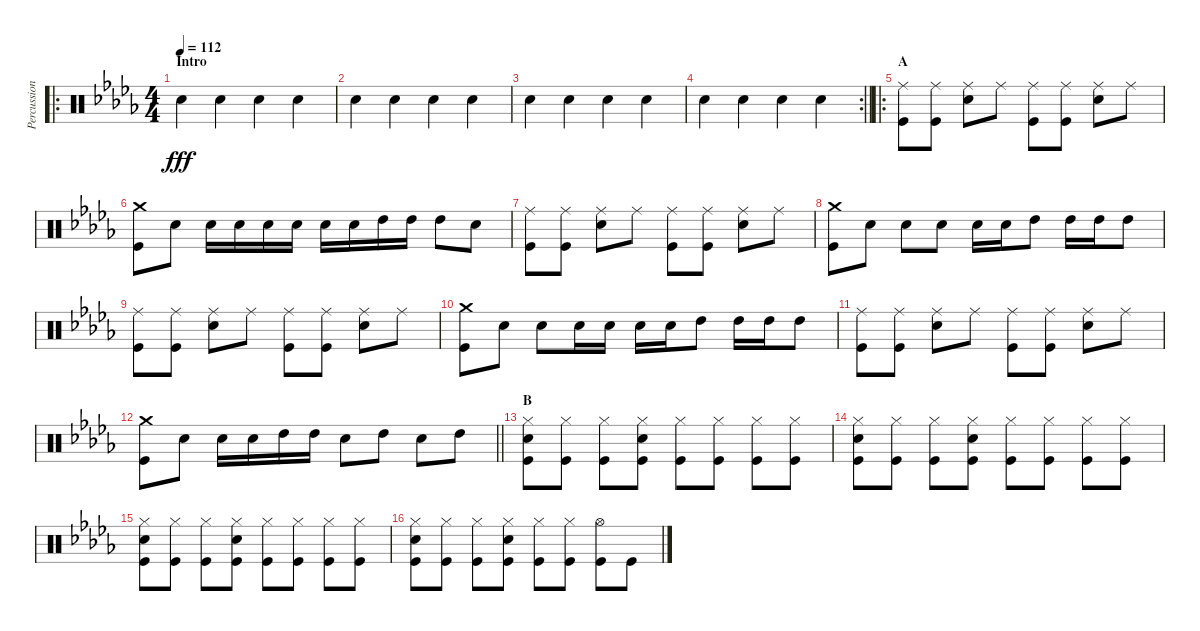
\track ("Percussioni" "Percussion") {instrument percussion}
\staff {score}
\articulation defaults
\ro
\ts (4 4)
\section ("" "Intro")
\tempo 112
\clef neutral
\ks db "Hand Clap (hit)".4{dy fff} "Hand Clap (hit)".4 "Hand Clap (hit)".4 "Hand Clap (hit)".4
|
"Hand Clap (hit)".4 "Hand Clap (hit)".4 "Hand Clap (hit)".4 "Hand Clap (hit)".4 |
"Hand Clap (hit)".4 "Hand Clap (hit)".4 "Hand Clap (hit)".4 "Hand Clap (hit)".4 |
\rc 2
\barLineRight lightlight "Hand Clap (hit)".4 "Hand Clap (hit)".4 "Hand Clap (hit)".4 "Hand Clap (hit)".4
|
\ro
\section ("" "A")
("Ride (middle)" "Kick (hit)").8 ("Ride (middle)" "Kick (hit)").8 ("Ride (middle)" "Snare (hit) 2").8 "Ride (middle)".8 ("Ride (middle)" "Kick (hit)").8 ("Ride (middle)" "Kick (hit)").8 ("Ride (middle)" "Snare (hit) 2").8 "Ride (middle)".8 |
("Crash medium (hit)" "Kick (hit)").8 "Snare (hit) 2".8 "Snare (hit) 2".16 "Snare (hit) 2".16 "Snare (hit) 2".16 "Snare (hit) 2".16 "Snare (hit) 2".16 "Snare (hit) 2".16 "High Tom (hit)".16 "High Tom (hit)".16 "High Tom (hit)".8 "Snare (hit) 2".8 |
("Ride (middle)" "Kick (hit)").8 ("Ride (middle)" "Kick (hit)").8 ("Ride (middle)" "Snare (hit) 2").8 "Ride (middle)".8 ("Ride (middle)" "Kick (hit)").8 ("Ride (middle)" "Kick (hit)").8 ("Ride (middle)" "Snare (hit) 2").8 "Ride (middle)".8 |
("Crash medium (hit)" "Kick (hit)").8 "Snare (hit) 2".8 "Snare (hit) 2".8 "Snare (hit) 2".8 "Snare (hit) 2".16 "Snare (hit) 2".16 "High Tom (hit)".8 "High Tom (hit)".16 "High Tom (hit)".16 "High Tom (hit)".8 |
("Ride (middle)" "Kick (hit)").8 ("Ride (middle)" "Kick (hit)").8 ("Ride (middle)" "Snare (hit) 2").8 "Ride (middle)".8 ("Ride (middle)" "Kick (hit)").8 ("Ride (middle)" "Kick (hit)").8 ("Ride (middle)" "Snare (hit) 2").8 "Ride (middle)".8 |
("Crash medium (hit)" "Kick (hit)").8 "Snare (hit) 2".8 "Snare (hit) 2".8 "Snare (hit) 2".16 "Snare (hit) 2".16 "Snare (hit) 2".16 "Snare (hit) 2".16 "High Tom (hit)".8 "High Tom (hit)".16 "High Tom (hit)".16 "High Tom (hit)".8 |
("Ride (middle)" "Kick (hit)").8 ("Ride (middle)" "Kick (hit)").8 ("Ride (middle)" "Snare (hit) 2").8 "Ride (middle)".8 ("Ride (middle)" "Kick (hit)").8 ("Ride (middle)" "Kick (hit)").8 ("Ride (middle)" "Snare (hit) 2").8 "Ride (middle)".8 |
\barLineRight lightlight
("Crash medium (hit)" "Kick (hit)").8 "Snare (hit) 2".8 "Snare (hit) 2".16 "Snare (hit) 2".16 "High Tom (hit)".16 "High Tom (hit)".16 "Snare (hit) 2".8 "High Tom (hit)".8 "Snare (hit) 2".8 "High Tom (hit)".8 |
\section ("" "B")
("Hi-Hat (closed)" "Snare (hit) 2" "Kick (hit)").8 ("Hi-Hat (closed)" "Kick (hit)").8 ("Hi-Hat (closed)" "Kick (hit)").8 ("Hi-Hat (closed)" "Snare (hit) 2" "Kick (hit)").8 ("Hi-Hat (closed)" "Kick (hit)").8 ("Hi-Hat (closed)" "Kick (hit)").8 ("Hi-Hat (closed)" "Kick (hit)").8 ("Hi-Hat (closed)" "Kick (hit)").8 |
("Hi-Hat (closed)" "Snare (hit) 2" "Kick (hit)").8 ("Hi-Hat (closed)" "Kick (hit)").8 ("Hi-Hat (closed)" "Kick (hit)").8 ("Hi-Hat (closed)" "Snare (hit) 2" "Kick (hit)").8 ("Hi-Hat (closed)" "Kick (hit)").8 ("Hi-Hat (closed)" "Kick (hit)").8 ("Hi-Hat (closed)" "Kick (hit)").8 ("Hi-Hat (closed)" "Kick (hit)").8 |
("Hi-Hat (closed)" "Snare (hit) 2" "Kick (hit)").8 ("Hi-Hat (closed)" "Kick (hit)").8 ("Hi-Hat (closed)" "Kick (hit)").8 ("Hi-Hat (closed)" "Snare (hit) 2" "Kick (hit)").8 ("Hi-Hat (closed)" "Kick (hit)").8 ("Hi-Hat (closed)" "Kick (hit)").8 ("Hi-Hat (closed)" "Kick (hit)").8 ("Hi-Hat (closed)" "Kick (hit)").8 |
("Hi-Hat (closed)" "Snare (hit) 2" "Kick (hit)").8 ("Hi-Hat (closed)" "Kick (hit)").8 ("Hi-Hat (closed)" "Kick (hit)").8 ("Hi-Hat (closed)" "Snare (hit) 2" "Kick (hit)").8 ("Hi-Hat (closed)" "Kick (hit)").8 ("Hi-Hat (closed)" "Kick (hit)").8 ("Hi-Hat (open)" "Kick (hit)").8 "Kick (hit)".8
